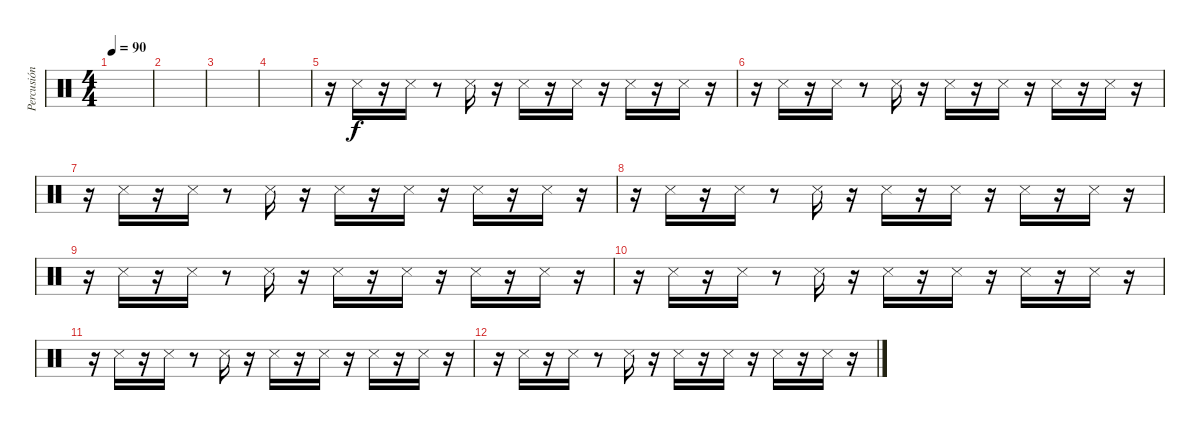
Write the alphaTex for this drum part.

\track ("Percusión" "Percusión") {instrument percussion}
\staff {score}
\articulation defaults
\ts (4 4)
\tempo 90
\clef neutral
\ks c
|
|
|
|
r.16 "Metronome (hit)".16 r.16 "Metronome (hit)".16 r.8 "Metronome (hit)".16 r.16 "Metronome (hit)".16 r.16 "Metronome (hit)".16 r.16 "Metronome (hit)".16 r.16 "Metronome (hit)".16 r.16 |
r.16{volume 14} "Metronome (hit)".16 r.16 "Metronome (hit)".16 r.8 "Metronome (hit)".16 r.16 "Metronome (hit)".16 r.16 "Metronome (hit)".16 r.16 "Metronome (hit)".16 r.16 "Metronome (hit)".16 r.16 |
r.16{volume 14} "Metronome (hit)".16 r.16 "Metronome (hit)".16 r.8 "Metronome (hit)".16 r.16 "Metronome (hit)".16 r.16 "Metronome (hit)".16 r.16 "Metronome (hit)".16 r.16 "Metronome (hit)".16 r.16 |
r.16{volume 14} "Metronome (hit)".16 r.16 "Metronome (hit)".16 r.8 "Metronome (hit)".16 r.16 "Metronome (hit)".16 r.16 "Metronome (hit)".16 r.16 "Metronome (hit)".16 r.16 "Metronome (hit)".16 r.16 |
r.16{volume 14} "Metronome (hit)".16 r.16 "Metronome (hit)".16 r.8 "Metronome (hit)".16 r.16 "Metronome (hit)".16 r.16 "Metronome (hit)".16 r.16 "Metronome (hit)".16 r.16 "Metronome (hit)".16 r.16 |
r.16{volume 14} "Metronome (hit)".16 r.16 "Metronome (hit)".16 r.8 "Metronome (hit)".16 r.16 "Metronome (hit)".16 r.16 "Metronome (hit)".16 r.16 "Metronome (hit)".16 r.16 "Metronome (hit)".16 r.16 |
r.16{volume 14} "Metronome (hit)".16 r.16 "Metronome (hit)".16 r.8 "Metronome (hit)".16 r.16 "Metronome (hit)".16 r.16 "Metronome (hit)".16 r.16 "Metronome (hit)".16 r.16 "Metronome (hit)".16 r.16 |
r.16{volume 14} "Metronome (hit)".16 r.16 "Metronome (hit)".16 r.8 "Metronome (hit)".16 r.16 "Metronome (hit)".16 r.16 "Metronome (hit)".16 r.16 "Metronome (hit)".16 r.16 "Metronome (hit)".16 r.16
